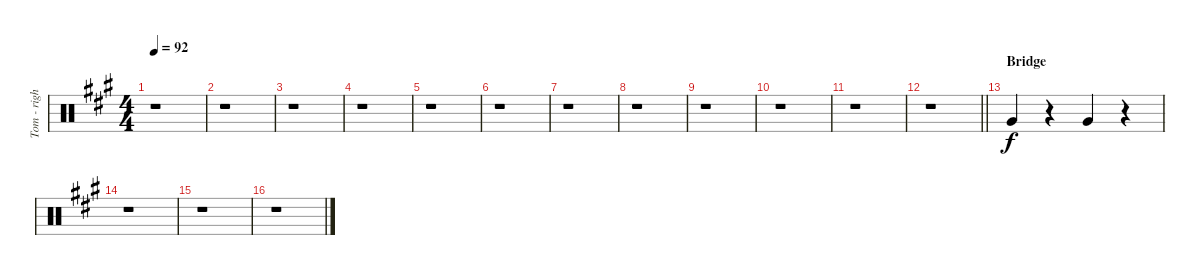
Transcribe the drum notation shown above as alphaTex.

\track ("Tom - right" "Tom - righ") {instrument percussion}
\staff {score}
\articulation defaults
\ts (4 4)
\tempo 92
\clef neutral
\ks f#minor
r.1{dy f} |
r.1 |
r.1 |
r.1 |
r.1 |
r.1 |
r.1 |
r.1 |
r.1 |
r.1 |
r.1 |
\barLineRight lightlight
r.1 |
\section ("" "Bridge")
"Very Low Tom (hit)".4 r.4 "Very Low Tom (hit)".4 r.4 |
r.1 |
r.1 |
r.1
